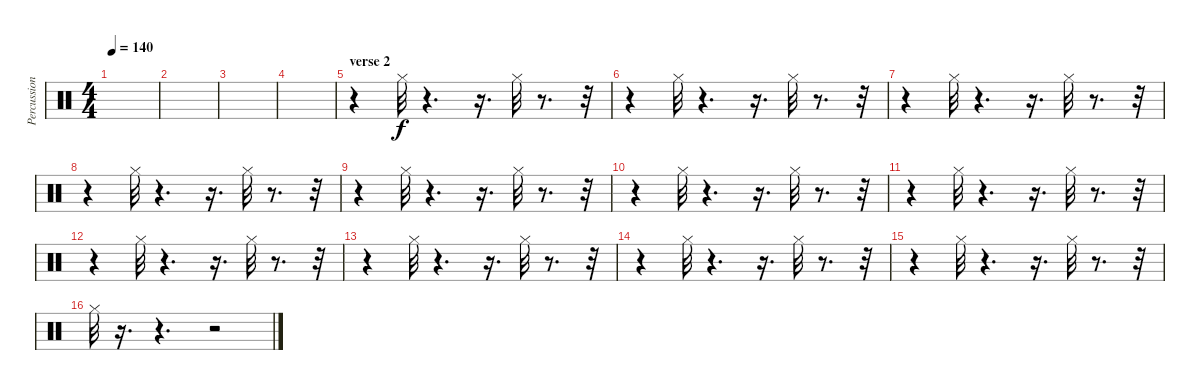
\track ("Percussions" "Percussion") {instrument percussion}
\staff {score}
\articulation defaults
\ts (4 4)
\tempo 140
\clef neutral
\ks c
|
|
|
|
\section ("" "verse 2")
r.4 "Hi-Hat (closed)".32 r.4{d} r.16{d} "Hi-Hat (closed)".32 r.8{d} r.32 |
r.4 "Hi-Hat (closed)".32 r.4{d} r.16{d} "Hi-Hat (closed)".32 r.8{d} r.32 |
r.4 "Hi-Hat (closed)".32 r.4{d} r.16{d} "Hi-Hat (closed)".32 r.8{d} r.32 |
r.4 "Hi-Hat (closed)".32 r.4{d} r.16{d} "Hi-Hat (closed)".32 r.8{d} r.32 |
r.4 "Hi-Hat (closed)".32 r.4{d} r.16{d} "Hi-Hat (closed)".32 r.8{d} r.32 |
r.4 "Hi-Hat (closed)".32 r.4{d} r.16{d} "Hi-Hat (closed)".32 r.8{d} r.32 |
r.4 "Hi-Hat (closed)".32 r.4{d} r.16{d} "Hi-Hat (closed)".32 r.8{d} r.32 |
r.4 "Hi-Hat (closed)".32 r.4{d} r.16{d} "Hi-Hat (closed)".32 r.8{d} r.32 |
r.4 "Hi-Hat (closed)".32 r.4{d} r.16{d} "Hi-Hat (closed)".32 r.8{d} r.32 |
r.4 "Hi-Hat (closed)".32 r.4{d} r.16{d} "Hi-Hat (closed)".32 r.8{d} r.32 |
r.4 "Hi-Hat (closed)".32 r.4{d} r.16{d} "Hi-Hat (closed)".32 r.8{d} r.32 |
"Hi-Hat (closed)".32 r.16{d} r.4{d} r.2
